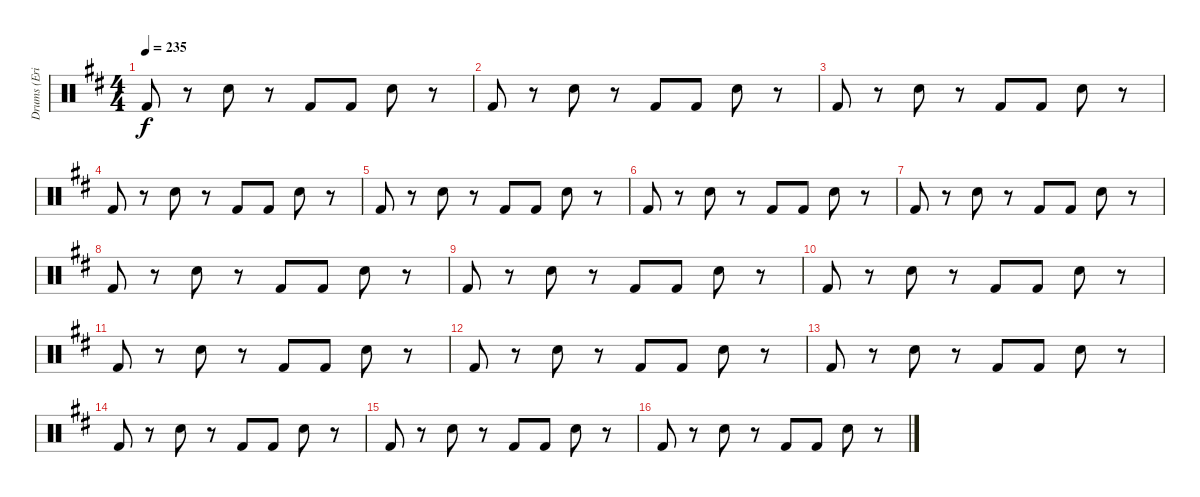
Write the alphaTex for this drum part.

\track ("Drums (Eric Carr)" "Drums (Eri") {instrument percussion}
\staff {score}
\articulation defaults
\ts (4 4)
\tempo 235
\clef neutral
\ks d "Kick (hit) 2".8{dy f}
r.8 "Snare (hit) 2".8 r.8 "Kick (hit) 2".8 "Kick (hit) 2".8 "Snare (hit) 2".8 r.8 |
"Kick (hit) 2".8 r.8 "Snare (hit) 2".8 r.8 "Kick (hit) 2".8 "Kick (hit) 2".8 "Snare (hit) 2".8 r.8 |
"Kick (hit) 2".8 r.8 "Snare (hit) 2".8 r.8 "Kick (hit) 2".8 "Kick (hit) 2".8 "Snare (hit) 2".8 r.8 |
"Kick (hit) 2".8 r.8 "Snare (hit) 2".8 r.8 "Kick (hit) 2".8 "Kick (hit) 2".8 "Snare (hit) 2".8 r.8 |
"Kick (hit) 2".8 r.8 "Snare (hit) 2".8 r.8 "Kick (hit) 2".8 "Kick (hit) 2".8 "Snare (hit) 2".8 r.8 |
"Kick (hit) 2".8 r.8 "Snare (hit) 2".8 r.8 "Kick (hit) 2".8 "Kick (hit) 2".8 "Snare (hit) 2".8 r.8 |
"Kick (hit) 2".8 r.8 "Snare (hit) 2".8 r.8 "Kick (hit) 2".8 "Kick (hit) 2".8 "Snare (hit) 2".8 r.8 |
"Kick (hit) 2".8 r.8 "Snare (hit) 2".8 r.8 "Kick (hit) 2".8 "Kick (hit) 2".8 "Snare (hit) 2".8 r.8 |
"Kick (hit) 2".8 r.8 "Snare (hit) 2".8 r.8 "Kick (hit) 2".8 "Kick (hit) 2".8 "Snare (hit) 2".8 r.8 |
"Kick (hit) 2".8 r.8 "Snare (hit) 2".8 r.8 "Kick (hit) 2".8 "Kick (hit) 2".8 "Snare (hit) 2".8 r.8 |
"Kick (hit) 2".8 r.8 "Snare (hit) 2".8 r.8 "Kick (hit) 2".8 "Kick (hit) 2".8 "Snare (hit) 2".8 r.8 |
"Kick (hit) 2".8 r.8 "Snare (hit) 2".8 r.8 "Kick (hit) 2".8 "Kick (hit) 2".8 "Snare (hit) 2".8 r.8 |
"Kick (hit) 2".8 r.8 "Snare (hit) 2".8 r.8 "Kick (hit) 2".8 "Kick (hit) 2".8 "Snare (hit) 2".8 r.8 |
"Kick (hit) 2".8 r.8 "Snare (hit) 2".8 r.8 "Kick (hit) 2".8 "Kick (hit) 2".8 "Snare (hit) 2".8 r.8 |
"Kick (hit) 2".8 r.8 "Snare (hit) 2".8 r.8 "Kick (hit) 2".8 "Kick (hit) 2".8 "Snare (hit) 2".8 r.8 |
"Kick (hit) 2".8 r.8 "Snare (hit) 2".8 r.8 "Kick (hit) 2".8 "Kick (hit) 2".8 "Snare (hit) 2".8 r.8
